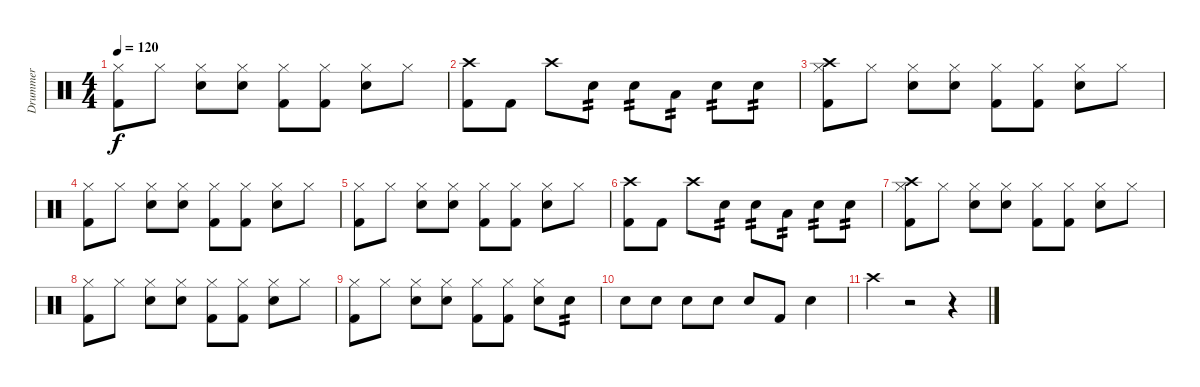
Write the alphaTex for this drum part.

\track ("Drummer" "Drummer") {instrument percussion}
\staff {score}
\articulation defaults
\ts (4 4)
\tempo 120
\clef neutral
\ks c
("Kick (hit) 2" "Hi-Hat (closed)").8{dy f} "Hi-Hat (closed)".8 ("Electric Snare (hit)" "Hi-Hat (closed)").8 ("Electric Snare (hit)" "Hi-Hat (closed)").8 ("Kick (hit) 2" "Hi-Hat (closed)").8 ("Kick (hit) 2" "Hi-Hat (closed)").8 ("Electric Snare (hit)" "Hi-Hat (closed)").8 "Hi-Hat (closed)".8 |
("Kick (hit) 2" "Crash high (hit)").8 "Kick (hit) 2".8 "Crash high (hit)".8 "Electric Snare (hit)".8{tp 2} "Electric Snare (hit)".8{tp 2} "Low Tom (hit)".8{tp 2} "Electric Snare (hit)".8{tp 2} "Electric Snare (hit)".8{tp 2} |
("Kick (hit) 2" "Crash high (hit)" "Hi-Hat (closed)").8 "Hi-Hat (closed)".8 ("Electric Snare (hit)" "Hi-Hat (closed)").8 ("Electric Snare (hit)" "Hi-Hat (closed)").8 ("Kick (hit) 2" "Hi-Hat (closed)").8 ("Kick (hit) 2" "Hi-Hat (closed)").8 ("Electric Snare (hit)" "Hi-Hat (closed)").8 "Hi-Hat (closed)".8 |
("Kick (hit) 2" "Hi-Hat (closed)").8 "Hi-Hat (closed)".8 ("Electric Snare (hit)" "Hi-Hat (closed)").8 ("Electric Snare (hit)" "Hi-Hat (closed)").8 ("Kick (hit) 2" "Hi-Hat (closed)").8 ("Kick (hit) 2" "Hi-Hat (closed)").8 ("Electric Snare (hit)" "Hi-Hat (closed)").8 "Hi-Hat (closed)".8 |
("Kick (hit) 2" "Hi-Hat (closed)").8 "Hi-Hat (closed)".8 ("Electric Snare (hit)" "Hi-Hat (closed)").8 ("Electric Snare (hit)" "Hi-Hat (closed)").8 ("Kick (hit) 2" "Hi-Hat (closed)").8 ("Kick (hit) 2" "Hi-Hat (closed)").8 ("Electric Snare (hit)" "Hi-Hat (closed)").8 "Hi-Hat (closed)".8 |
("Kick (hit) 2" "Crash high (hit)").8 "Kick (hit) 2".8 "Crash high (hit)".8 "Electric Snare (hit)".8{tp 2} "Electric Snare (hit)".8{tp 2} "Low Tom (hit)".8{tp 2} "Electric Snare (hit)".8{tp 2} "Electric Snare (hit)".8{tp 2} |
("Kick (hit) 2" "Crash high (hit)" "Hi-Hat (closed)").8 "Hi-Hat (closed)".8 ("Electric Snare (hit)" "Hi-Hat (closed)").8 ("Electric Snare (hit)" "Hi-Hat (closed)").8 ("Kick (hit) 2" "Hi-Hat (closed)").8 ("Kick (hit) 2" "Hi-Hat (closed)").8 ("Electric Snare (hit)" "Hi-Hat (closed)").8 "Hi-Hat (closed)".8 |
("Kick (hit) 2" "Hi-Hat (closed)").8 "Hi-Hat (closed)".8 ("Electric Snare (hit)" "Hi-Hat (closed)").8 ("Electric Snare (hit)" "Hi-Hat (closed)").8 ("Kick (hit) 2" "Hi-Hat (closed)").8 ("Kick (hit) 2" "Hi-Hat (closed)").8 ("Electric Snare (hit)" "Hi-Hat (closed)").8 "Hi-Hat (closed)".8 |
("Kick (hit) 2" "Hi-Hat (closed)").8 "Hi-Hat (closed)".8 ("Electric Snare (hit)" "Hi-Hat (closed)").8 ("Electric Snare (hit)" "Hi-Hat (closed)").8 ("Kick (hit) 2" "Hi-Hat (closed)").8 ("Kick (hit) 2" "Hi-Hat (closed)").8 ("Electric Snare (hit)" "Hi-Hat (closed)").8 "Electric Snare (hit)".8{tp 2} |
"Electric Snare (hit)".8 "Electric Snare (hit)".8 "Electric Snare (hit)".8 "Electric Snare (hit)".8 "Electric Snare (hit)".8 "Kick (hit) 2".8 "Electric Snare (hit)".4 |
"Crash high (hit)".4 r.2 r.4
